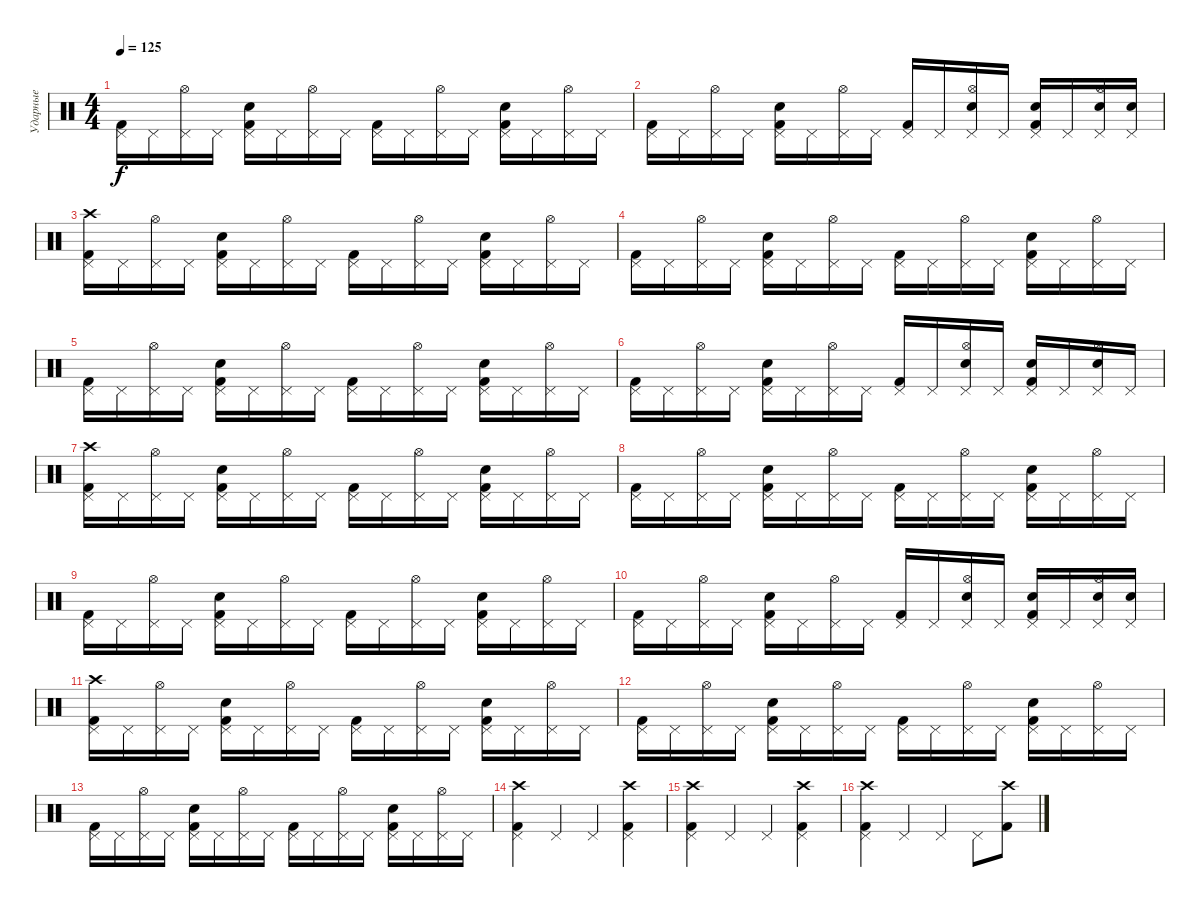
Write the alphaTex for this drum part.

\track ("Ударные" "Ударные") {instrument percussion}
\staff {score}
\articulation defaults
\ts (4 4)
\tempo 125
\clef neutral
\ks c
("Kick (hit) 2" "Pedal Hi-Hat (hit)").16{dy f} "Pedal Hi-Hat (hit)".16 ("Pedal Hi-Hat (hit)" "Hi-Hat (open)").16 "Pedal Hi-Hat (hit)".16 ("Kick (hit) 2" "Pedal Hi-Hat (hit)" "Snare (hit) 2").16 "Pedal Hi-Hat (hit)".16 ("Pedal Hi-Hat (hit)" "Hi-Hat (open)").16 "Pedal Hi-Hat (hit)".16 ("Kick (hit) 2" "Pedal Hi-Hat (hit)").16 "Pedal Hi-Hat (hit)".16 ("Pedal Hi-Hat (hit)" "Hi-Hat (open)").16 "Pedal Hi-Hat (hit)".16 ("Kick (hit) 2" "Pedal Hi-Hat (hit)" "Snare (hit) 2").16 "Pedal Hi-Hat (hit)".16 ("Pedal Hi-Hat (hit)" "Hi-Hat (open)").16 "Pedal Hi-Hat (hit)".16 |
("Kick (hit) 2" "Pedal Hi-Hat (hit)").16 "Pedal Hi-Hat (hit)".16 ("Pedal Hi-Hat (hit)" "Hi-Hat (open)").16 "Pedal Hi-Hat (hit)".16 ("Kick (hit) 2" "Pedal Hi-Hat (hit)" "Snare (hit) 2").16 "Pedal Hi-Hat (hit)".16 ("Pedal Hi-Hat (hit)" "Hi-Hat (open)").16 "Pedal Hi-Hat (hit)".16 ("Kick (hit) 2" "Pedal Hi-Hat (hit)").16 "Pedal Hi-Hat (hit)".16 ("Pedal Hi-Hat (hit)" "Snare (hit) 2" "Hi-Hat (open)").16 "Pedal Hi-Hat (hit)".16 ("Kick (hit) 2" "Pedal Hi-Hat (hit)" "Snare (hit) 2").16 "Pedal Hi-Hat (hit)".16 ("Pedal Hi-Hat (hit)" "Snare (hit) 2" "Hi-Hat (open)").16 ("Pedal Hi-Hat (hit)" "Snare (hit) 2").16 |
("Kick (hit) 2" "Pedal Hi-Hat (hit)" "Crash high (hit)").16 "Pedal Hi-Hat (hit)".16 ("Pedal Hi-Hat (hit)" "Hi-Hat (open)").16 "Pedal Hi-Hat (hit)".16 ("Kick (hit) 2" "Pedal Hi-Hat (hit)" "Snare (hit) 2").16 "Pedal Hi-Hat (hit)".16 ("Pedal Hi-Hat (hit)" "Hi-Hat (open)").16 "Pedal Hi-Hat (hit)".16 ("Kick (hit) 2" "Pedal Hi-Hat (hit)").16 "Pedal Hi-Hat (hit)".16 ("Pedal Hi-Hat (hit)" "Hi-Hat (open)").16 "Pedal Hi-Hat (hit)".16 ("Kick (hit) 2" "Pedal Hi-Hat (hit)" "Snare (hit) 2").16 "Pedal Hi-Hat (hit)".16 ("Pedal Hi-Hat (hit)" "Hi-Hat (open)").16 "Pedal Hi-Hat (hit)".16 |
("Kick (hit) 2" "Pedal Hi-Hat (hit)").16 "Pedal Hi-Hat (hit)".16 ("Pedal Hi-Hat (hit)" "Hi-Hat (open)").16 "Pedal Hi-Hat (hit)".16 ("Kick (hit) 2" "Pedal Hi-Hat (hit)" "Snare (hit) 2").16 "Pedal Hi-Hat (hit)".16 ("Pedal Hi-Hat (hit)" "Hi-Hat (open)").16 "Pedal Hi-Hat (hit)".16 ("Kick (hit) 2" "Pedal Hi-Hat (hit)").16 "Pedal Hi-Hat (hit)".16 ("Pedal Hi-Hat (hit)" "Hi-Hat (open)").16 "Pedal Hi-Hat (hit)".16 ("Kick (hit) 2" "Pedal Hi-Hat (hit)" "Snare (hit) 2").16 "Pedal Hi-Hat (hit)".16 ("Pedal Hi-Hat (hit)" "Hi-Hat (open)").16 "Pedal Hi-Hat (hit)".16 |
("Kick (hit) 2" "Pedal Hi-Hat (hit)").16 "Pedal Hi-Hat (hit)".16 ("Pedal Hi-Hat (hit)" "Hi-Hat (open)").16 "Pedal Hi-Hat (hit)".16 ("Kick (hit) 2" "Pedal Hi-Hat (hit)" "Snare (hit) 2").16 "Pedal Hi-Hat (hit)".16 ("Pedal Hi-Hat (hit)" "Hi-Hat (open)").16 "Pedal Hi-Hat (hit)".16 ("Kick (hit) 2" "Pedal Hi-Hat (hit)").16 "Pedal Hi-Hat (hit)".16 ("Pedal Hi-Hat (hit)" "Hi-Hat (open)").16 "Pedal Hi-Hat (hit)".16 ("Kick (hit) 2" "Pedal Hi-Hat (hit)" "Snare (hit) 2").16 "Pedal Hi-Hat (hit)".16 ("Pedal Hi-Hat (hit)" "Hi-Hat (open)").16 "Pedal Hi-Hat (hit)".16 |
("Kick (hit) 2" "Pedal Hi-Hat (hit)").16 "Pedal Hi-Hat (hit)".16 ("Pedal Hi-Hat (hit)" "Hi-Hat (open)").16 "Pedal Hi-Hat (hit)".16 ("Kick (hit) 2" "Pedal Hi-Hat (hit)" "Snare (hit) 2").16 "Pedal Hi-Hat (hit)".16 ("Pedal Hi-Hat (hit)" "Hi-Hat (open)").16 "Pedal Hi-Hat (hit)".16 ("Kick (hit) 2" "Pedal Hi-Hat (hit)").16 "Pedal Hi-Hat (hit)".16 ("Pedal Hi-Hat (hit)" "Snare (hit) 2" "Hi-Hat (open)").16 "Pedal Hi-Hat (hit)".16 ("Kick (hit) 2" "Pedal Hi-Hat (hit)" "Snare (hit) 2").16 "Pedal Hi-Hat (hit)".16 ("Pedal Hi-Hat (hit)" "Snare (hit) 2" "Hi-Hat (open)").16 "Pedal Hi-Hat (hit)".16 |
("Kick (hit) 2" "Pedal Hi-Hat (hit)" "Crash high (hit)").16 "Pedal Hi-Hat (hit)".16 ("Pedal Hi-Hat (hit)" "Hi-Hat (open)").16 "Pedal Hi-Hat (hit)".16 ("Kick (hit) 2" "Pedal Hi-Hat (hit)" "Snare (hit) 2").16 "Pedal Hi-Hat (hit)".16 ("Pedal Hi-Hat (hit)" "Hi-Hat (open)").16 "Pedal Hi-Hat (hit)".16 ("Kick (hit) 2" "Pedal Hi-Hat (hit)").16 "Pedal Hi-Hat (hit)".16 ("Pedal Hi-Hat (hit)" "Hi-Hat (open)").16 "Pedal Hi-Hat (hit)".16 ("Kick (hit) 2" "Pedal Hi-Hat (hit)" "Snare (hit) 2").16 "Pedal Hi-Hat (hit)".16 ("Pedal Hi-Hat (hit)" "Hi-Hat (open)").16 "Pedal Hi-Hat (hit)".16 |
("Kick (hit) 2" "Pedal Hi-Hat (hit)").16 "Pedal Hi-Hat (hit)".16 ("Pedal Hi-Hat (hit)" "Hi-Hat (open)").16 "Pedal Hi-Hat (hit)".16 ("Kick (hit) 2" "Pedal Hi-Hat (hit)" "Snare (hit) 2").16 "Pedal Hi-Hat (hit)".16 ("Pedal Hi-Hat (hit)" "Hi-Hat (open)").16 "Pedal Hi-Hat (hit)".16 ("Kick (hit) 2" "Pedal Hi-Hat (hit)").16 "Pedal Hi-Hat (hit)".16 ("Pedal Hi-Hat (hit)" "Hi-Hat (open)").16 "Pedal Hi-Hat (hit)".16 ("Kick (hit) 2" "Pedal Hi-Hat (hit)" "Snare (hit) 2").16 "Pedal Hi-Hat (hit)".16 ("Pedal Hi-Hat (hit)" "Hi-Hat (open)").16 "Pedal Hi-Hat (hit)".16 |
("Kick (hit) 2" "Pedal Hi-Hat (hit)").16 "Pedal Hi-Hat (hit)".16 ("Pedal Hi-Hat (hit)" "Hi-Hat (open)").16 "Pedal Hi-Hat (hit)".16 ("Kick (hit) 2" "Pedal Hi-Hat (hit)" "Snare (hit) 2").16 "Pedal Hi-Hat (hit)".16 ("Pedal Hi-Hat (hit)" "Hi-Hat (open)").16 "Pedal Hi-Hat (hit)".16 ("Kick (hit) 2" "Pedal Hi-Hat (hit)").16 "Pedal Hi-Hat (hit)".16 ("Pedal Hi-Hat (hit)" "Hi-Hat (open)").16 "Pedal Hi-Hat (hit)".16 ("Kick (hit) 2" "Pedal Hi-Hat (hit)" "Snare (hit) 2").16 "Pedal Hi-Hat (hit)".16 ("Pedal Hi-Hat (hit)" "Hi-Hat (open)").16 "Pedal Hi-Hat (hit)".16 |
("Kick (hit) 2" "Pedal Hi-Hat (hit)").16 "Pedal Hi-Hat (hit)".16 ("Pedal Hi-Hat (hit)" "Hi-Hat (open)").16 "Pedal Hi-Hat (hit)".16 ("Kick (hit) 2" "Pedal Hi-Hat (hit)" "Snare (hit) 2").16 "Pedal Hi-Hat (hit)".16 ("Pedal Hi-Hat (hit)" "Hi-Hat (open)").16 "Pedal Hi-Hat (hit)".16 ("Kick (hit) 2" "Pedal Hi-Hat (hit)").16 "Pedal Hi-Hat (hit)".16 ("Pedal Hi-Hat (hit)" "Snare (hit) 2" "Hi-Hat (open)").16 "Pedal Hi-Hat (hit)".16 ("Kick (hit) 2" "Pedal Hi-Hat (hit)" "Snare (hit) 2").16 "Pedal Hi-Hat (hit)".16 ("Pedal Hi-Hat (hit)" "Snare (hit) 2" "Hi-Hat (open)").16 ("Pedal Hi-Hat (hit)" "Snare (hit) 2").16 |
("Kick (hit) 2" "Pedal Hi-Hat (hit)" "Crash high (hit)").16 "Pedal Hi-Hat (hit)".16 ("Pedal Hi-Hat (hit)" "Hi-Hat (open)").16 "Pedal Hi-Hat (hit)".16 ("Kick (hit) 2" "Pedal Hi-Hat (hit)" "Snare (hit) 2").16 "Pedal Hi-Hat (hit)".16 ("Pedal Hi-Hat (hit)" "Hi-Hat (open)").16 "Pedal Hi-Hat (hit)".16 ("Kick (hit) 2" "Pedal Hi-Hat (hit)").16 "Pedal Hi-Hat (hit)".16 ("Pedal Hi-Hat (hit)" "Hi-Hat (open)").16 "Pedal Hi-Hat (hit)".16 ("Kick (hit) 2" "Pedal Hi-Hat (hit)" "Snare (hit) 2").16 "Pedal Hi-Hat (hit)".16 ("Pedal Hi-Hat (hit)" "Hi-Hat (open)").16 "Pedal Hi-Hat (hit)".16 |
("Kick (hit) 2" "Pedal Hi-Hat (hit)").16 "Pedal Hi-Hat (hit)".16 ("Pedal Hi-Hat (hit)" "Hi-Hat (open)").16 "Pedal Hi-Hat (hit)".16 ("Kick (hit) 2" "Pedal Hi-Hat (hit)" "Snare (hit) 2").16 "Pedal Hi-Hat (hit)".16 ("Pedal Hi-Hat (hit)" "Hi-Hat (open)").16 "Pedal Hi-Hat (hit)".16 ("Kick (hit) 2" "Pedal Hi-Hat (hit)").16 "Pedal Hi-Hat (hit)".16 ("Pedal Hi-Hat (hit)" "Hi-Hat (open)").16 "Pedal Hi-Hat (hit)".16 ("Kick (hit) 2" "Pedal Hi-Hat (hit)" "Snare (hit) 2").16 "Pedal Hi-Hat (hit)".16 ("Pedal Hi-Hat (hit)" "Hi-Hat (open)").16 "Pedal Hi-Hat (hit)".16 |
("Kick (hit) 2" "Pedal Hi-Hat (hit)").16 "Pedal Hi-Hat (hit)".16 ("Pedal Hi-Hat (hit)" "Hi-Hat (open)").16 "Pedal Hi-Hat (hit)".16 ("Kick (hit) 2" "Pedal Hi-Hat (hit)" "Snare (hit) 2").16 "Pedal Hi-Hat (hit)".16 ("Pedal Hi-Hat (hit)" "Hi-Hat (open)").16 "Pedal Hi-Hat (hit)".16 ("Kick (hit) 2" "Pedal Hi-Hat (hit)").16 "Pedal Hi-Hat (hit)".16 ("Pedal Hi-Hat (hit)" "Hi-Hat (open)").16 "Pedal Hi-Hat (hit)".16 ("Kick (hit) 2" "Pedal Hi-Hat (hit)" "Snare (hit) 2").16 "Pedal Hi-Hat (hit)".16 ("Pedal Hi-Hat (hit)" "Hi-Hat (open)").16 "Pedal Hi-Hat (hit)".16 |
("Kick (hit) 2" "Pedal Hi-Hat (hit)" "Crash high (hit)").4 "Pedal Hi-Hat (hit)".4 "Pedal Hi-Hat (hit)".4 ("Kick (hit) 2" "Pedal Hi-Hat (hit)" "Crash high (hit)").4 |
("Kick (hit) 2" "Pedal Hi-Hat (hit)" "Crash high (hit)").4 "Pedal Hi-Hat (hit)".4 "Pedal Hi-Hat (hit)".4 ("Kick (hit) 2" "Pedal Hi-Hat (hit)" "Crash high (hit)").4 |
("Kick (hit) 2" "Pedal Hi-Hat (hit)" "Crash high (hit)").4 "Pedal Hi-Hat (hit)".4 "Pedal Hi-Hat (hit)".4 "Pedal Hi-Hat (hit)".8 ("Kick (hit) 2" "Crash high (hit)").8
